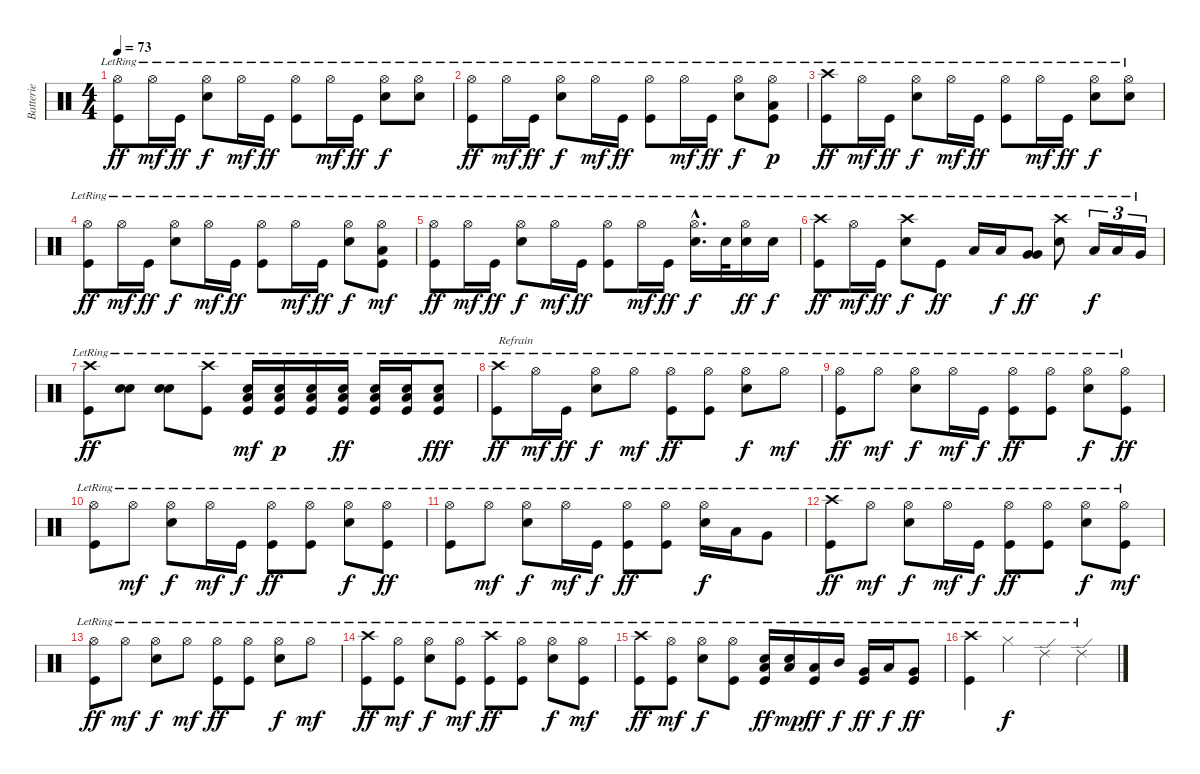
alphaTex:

\track ("Batterie" "Batterie") {instrument percussion}
\staff {score}
\articulation defaults
\ts (4 4)
\tempo 73
\clef neutral
\ks c
("Hi-Hat (open)"{lr} "Kick (hit)"{lr}).8{dy ff} "Hi-Hat (open)"{lr}.16{dy mf} "Kick (hit)"{lr}.16{dy ff} ("Hi-Hat (open)"{lr} "Snare (hit) 2"{lr}).8{dy f} "Hi-Hat (open)"{lr}.16{dy mf} "Kick (hit)"{lr}.16{dy ff} ("Hi-Hat (open)"{lr} "Kick (hit)"{lr}).8 "Hi-Hat (open)"{lr}.16{dy mf} "Kick (hit)"{lr}.16{dy ff} ("Hi-Hat (open)"{lr} "Snare (hit) 2"{lr}).8{dy f} ("Hi-Hat (open)"{lr} "Snare (hit) 2"{lr}).8 |
("Hi-Hat (open)"{lr} "Kick (hit)"{lr}).8{dy ff} "Hi-Hat (open)"{lr}.16{dy mf} "Kick (hit)"{lr}.16{dy ff} ("Hi-Hat (open)"{lr} "Snare (hit) 2"{lr}).8{dy f} "Hi-Hat (open)"{lr}.16{dy mf} "Kick (hit)"{lr}.16{dy ff} ("Hi-Hat (open)"{lr} "Kick (hit)"{lr}).8 "Hi-Hat (open)"{lr}.16{dy mf} "Kick (hit)"{lr}.16{dy ff} ("Hi-Hat (open)"{lr} "Snare (hit) 2"{lr}).8{dy f} ("Hi-Hat (open)"{lr} "Low Floor Tom (hit)"{lr} "Kick (hit)"{lr}).8{dy p} |
("Crash high (hit)"{lr} "Kick (hit)"{lr}).8{dy ff} "Hi-Hat (open)"{lr}.16{dy mf} "Kick (hit)"{lr}.16{dy ff} ("Hi-Hat (open)"{lr} "Snare (hit) 2"{lr}).8{dy f} "Hi-Hat (open)"{lr}.16{dy mf} "Kick (hit)"{lr}.16{dy ff} ("Hi-Hat (open)"{lr} "Kick (hit)"{lr}).8 "Hi-Hat (open)"{lr}.16{dy mf} "Kick (hit)"{lr}.16{dy ff} ("Hi-Hat (open)"{lr} "Snare (hit) 2"{lr}).8{dy f} ("Hi-Hat (open)"{lr} "Snare (hit) 2"{lr}).8 |
("Hi-Hat (open)"{lr} "Kick (hit)"{lr}).8{dy ff} "Hi-Hat (open)"{lr}.16{dy mf} "Kick (hit)"{lr}.16{dy ff} ("Hi-Hat (open)"{lr} "Snare (hit) 2"{lr}).8{dy f} "Hi-Hat (open)"{lr}.16{dy mf} "Kick (hit)"{lr}.16{dy ff} ("Hi-Hat (open)"{lr} "Kick (hit)"{lr}).8 "Hi-Hat (open)"{lr}.16{dy mf} "Kick (hit)"{lr}.16{dy ff} ("Hi-Hat (open)"{lr} "Snare (hit) 2"{lr}).8{dy f} ("Hi-Hat (open)"{lr} "Low Floor Tom (hit)"{lr} "Kick (hit)"{lr}).8{dy mf} |
("Hi-Hat (open)"{lr} "Kick (hit)"{lr}).8{dy ff} "Hi-Hat (open)"{lr}.16{dy mf} "Kick (hit)"{lr}.16{dy ff} ("Hi-Hat (open)"{lr} "Snare (hit) 2"{lr}).8{dy f} "Hi-Hat (open)"{lr}.16{dy mf} "Kick (hit)"{lr}.16{dy ff} ("Hi-Hat (open)"{lr} "Kick (hit)"{lr}).8 "Hi-Hat (open)"{lr}.16{dy mf} "Kick (hit)"{lr}.16{dy ff} ("Hi-Hat (open)"{hac lr} "Snare (hit) 2"{hac lr}).16{d dy f} "Snare (hit) 2"{lr}.32 ("Hi-Hat (open)"{lr} "Snare (hit) 2"{lr}).16{dy ff} "Snare (hit) 2"{lr}.16{dy f} |
("Crash high (hit)"{lr} "Kick (hit)"{lr}).8{dy ff} "Hi-Hat (open)"{lr}.16{dy mf} "Kick (hit)"{lr}.16{dy ff} ("Crash high (hit)"{lr} "Snare (hit) 2"{lr}).8{dy f} "Kick (hit)"{lr}.8{dy ff} "Low Tom (hit)"{lr}.16 "Low Tom (hit)"{lr}.16{dy f} ("Very Low Tom (hit)"{lr} "Very Low Tom (hit)"{lr}).8{bu 60 dy ff} ("Crash high (hit)"{lr} "Snare (hit) 2"{lr}).8 "Low Tom (hit)"{lr}.16{tu (3 2) dy f} "Low Tom (hit)"{lr}.16{tu (3 2)} "Very Low Tom (hit)"{lr}.16{tu (3 2)} |
("Crash high (hit)"{lr} "Kick (hit)"{lr}).8{dy ff} ("Snare (hit) 2"{lr} "Snare (hit) 2"{lr}).8{bu 60} ("Snare (hit) 2"{lr} "Snare (hit) 2"{lr}).8{bu 60} ("Crash high (hit)"{lr} "Kick (hit)"{lr}).8 ("Low Floor Tom (hit)"{lr} "Snare (hit) 2"{lr} "Kick (hit)"{lr}).16{dy mf} ("Low Floor Tom (hit)"{lr} "Snare (hit) 2"{lr} "Kick (hit)"{lr}).16{dy p} ("Low Floor Tom (hit)"{lr} "Snare (hit) 2"{lr} "Kick (hit)"{lr}).16 ("Low Floor Tom (hit)"{lr} "Snare (hit) 2"{lr} "Kick (hit)"{lr}).16{dy ff} ("Low Floor Tom (hit)"{lr} "Snare (hit) 2"{lr} "Kick (hit)"{lr}).16 ("Low Floor Tom (hit)"{lr} "Snare (hit) 2"{lr} "Kick (hit)"{lr}).16 ("Low Floor Tom (hit)"{lr} "Snare (hit) 2"{lr} "Kick (hit)"{lr}).8{dy fff} |
("Crash high (hit)"{lr} "Kick (hit)"{lr}).8{txt "Refrain" dy ff} "Hi-Hat (open)"{lr}.16{dy mf} "Kick (hit)"{lr}.16{dy ff} ("Hi-Hat (open)"{lr} "Snare (hit) 2"{lr}).8{dy f} "Hi-Hat (open)"{lr}.8{dy mf} ("Hi-Hat (open)"{lr} "Kick (hit)"{lr}).8{dy ff} ("Hi-Hat (open)"{lr} "Kick (hit)"{lr}).8 ("Hi-Hat (open)"{lr} "Snare (hit) 2"{lr}).8{dy f} "Hi-Hat (open)"{lr}.8{dy mf} |
("Hi-Hat (open)"{lr} "Kick (hit)"{lr}).8{dy ff} "Hi-Hat (open)"{lr}.8{dy mf} ("Hi-Hat (open)"{lr} "Snare (hit) 2"{lr}).8{dy f} "Hi-Hat (open)"{lr}.16{dy mf} "Kick (hit)"{lr}.16{dy f} ("Hi-Hat (open)"{lr} "Kick (hit)"{lr}).8{dy ff} ("Hi-Hat (open)"{lr} "Kick (hit)"{lr}).8 ("Hi-Hat (open)"{lr} "Snare (hit) 2"{lr}).8{dy f} ("Hi-Hat (open)"{lr} "Kick (hit)"{lr}).8{dy ff} |
("Hi-Hat (open)"{lr} "Kick (hit)"{lr}).8 "Hi-Hat (open)"{lr}.8{dy mf} ("Hi-Hat (open)"{lr} "Snare (hit) 2"{lr}).8{dy f} "Hi-Hat (open)"{lr}.16{dy mf} "Kick (hit)"{lr}.16{dy f} ("Hi-Hat (open)"{lr} "Kick (hit)"{lr}).8{dy ff} ("Hi-Hat (open)"{lr} "Kick (hit)"{lr}).8 ("Hi-Hat (open)"{lr} "Snare (hit) 2"{lr}).8{dy f} ("Hi-Hat (open)"{lr} "Kick (hit)"{lr}).8{dy ff} |
("Hi-Hat (open)"{lr} "Kick (hit)"{lr}).8 "Hi-Hat (open)"{lr}.8{dy mf} ("Hi-Hat (open)"{lr} "Snare (hit) 2"{lr}).8{dy f} "Hi-Hat (open)"{lr}.16{dy mf} "Kick (hit)"{lr}.16{dy f} ("Hi-Hat (open)"{lr} "Kick (hit)"{lr}).8{dy ff} ("Hi-Hat (open)"{lr} "Kick (hit)"{lr}).8 ("Hi-Hat (open)"{lr} "Snare (hit) 2"{lr}).16{dy f} "Low Tom (hit)"{lr}.16 "Very Low Tom (hit)"{lr}.8 |
("Crash high (hit)"{lr} "Kick (hit)"{lr}).8{dy ff} "Hi-Hat (open)"{lr}.8{dy mf} ("Hi-Hat (open)"{lr} "Snare (hit) 2"{lr}).8{dy f} "Hi-Hat (open)"{lr}.16{dy mf} "Kick (hit)"{lr}.16{dy f} ("Hi-Hat (open)"{lr} "Kick (hit)"{lr}).8{dy ff} ("Hi-Hat (open)"{lr} "Kick (hit)"{lr}).8 ("Hi-Hat (open)"{lr} "Snare (hit) 2"{lr}).8{dy f} ("Hi-Hat (open)"{lr} "Kick (hit)"{lr}).8{dy mf} |
("Hi-Hat (open)"{lr} "Kick (hit)"{lr}).8{dy ff} "Hi-Hat (open)"{lr}.8{dy mf} ("Hi-Hat (open)"{lr} "Snare (hit) 2"{lr}).8{dy f} "Hi-Hat (open)"{lr}.8{dy mf} ("Hi-Hat (open)"{lr} "Kick (hit)"{lr}).8{dy ff} ("Hi-Hat (open)"{lr} "Kick (hit)"{lr}).8 ("Hi-Hat (open)"{lr} "Snare (hit) 2"{lr}).8{dy f} "Hi-Hat (open)"{lr}.8{dy mf} |
("Crash high (hit)"{lr} "Kick (hit)"{lr}).8{dy ff} ("Hi-Hat (open)"{lr} "Kick (hit)"{lr}).8{dy mf} ("Hi-Hat (open)"{lr} "Snare (hit) 2"{lr}).8{dy f} ("Hi-Hat (open)"{lr} "Kick (hit)"{lr}).8{dy mf} ("Crash high (hit)"{lr} "Kick (hit)"{lr}).8{dy ff} ("Hi-Hat (open)"{lr} "Kick (hit)"{lr}).8 ("Hi-Hat (open)"{lr} "Snare (hit) 2"{lr}).8{dy f} ("Hi-Hat (open)"{lr} "Kick (hit)"{lr}).8{dy mf} |
("Crash high (hit)"{lr} "Kick (hit)"{lr}).8{dy ff} ("Hi-Hat (open)"{lr} "Kick (hit)"{lr}).8{dy mf} ("Hi-Hat (open)"{lr} "Snare (hit) 2"{lr}).8{dy f} ("Hi-Hat (open)"{lr} "Kick (hit)"{lr}).8 ("Low Floor Tom (hit)"{lr} "Snare (hit) 2"{lr} "Kick (hit)"{lr}).16{dy ff} ("Low Floor Tom (hit)"{lr} "Snare (hit) 2"{lr}).16{dy mp} ("Low Tom (hit)"{lr} "Kick (hit)"{lr}).16{dy ff} "Mid Tom (hit)"{lr}.16{dy f} ("Very Low Tom (hit)"{lr} "Kick (hit)"{lr}).16{dy ff} "Low Tom (hit)"{lr}.16{dy f} ("Very Low Tom (hit)"{lr} "Kick (hit)"{lr}).8{dy ff} |
("Crash high (hit)"{lr} "Kick (hit)"{lr}).4 "Hi-Hat (closed)"{lr}.4{dy f} "Ride (edge) 2"{lr}.4 "Ride (edge) 2"{lr}.4
